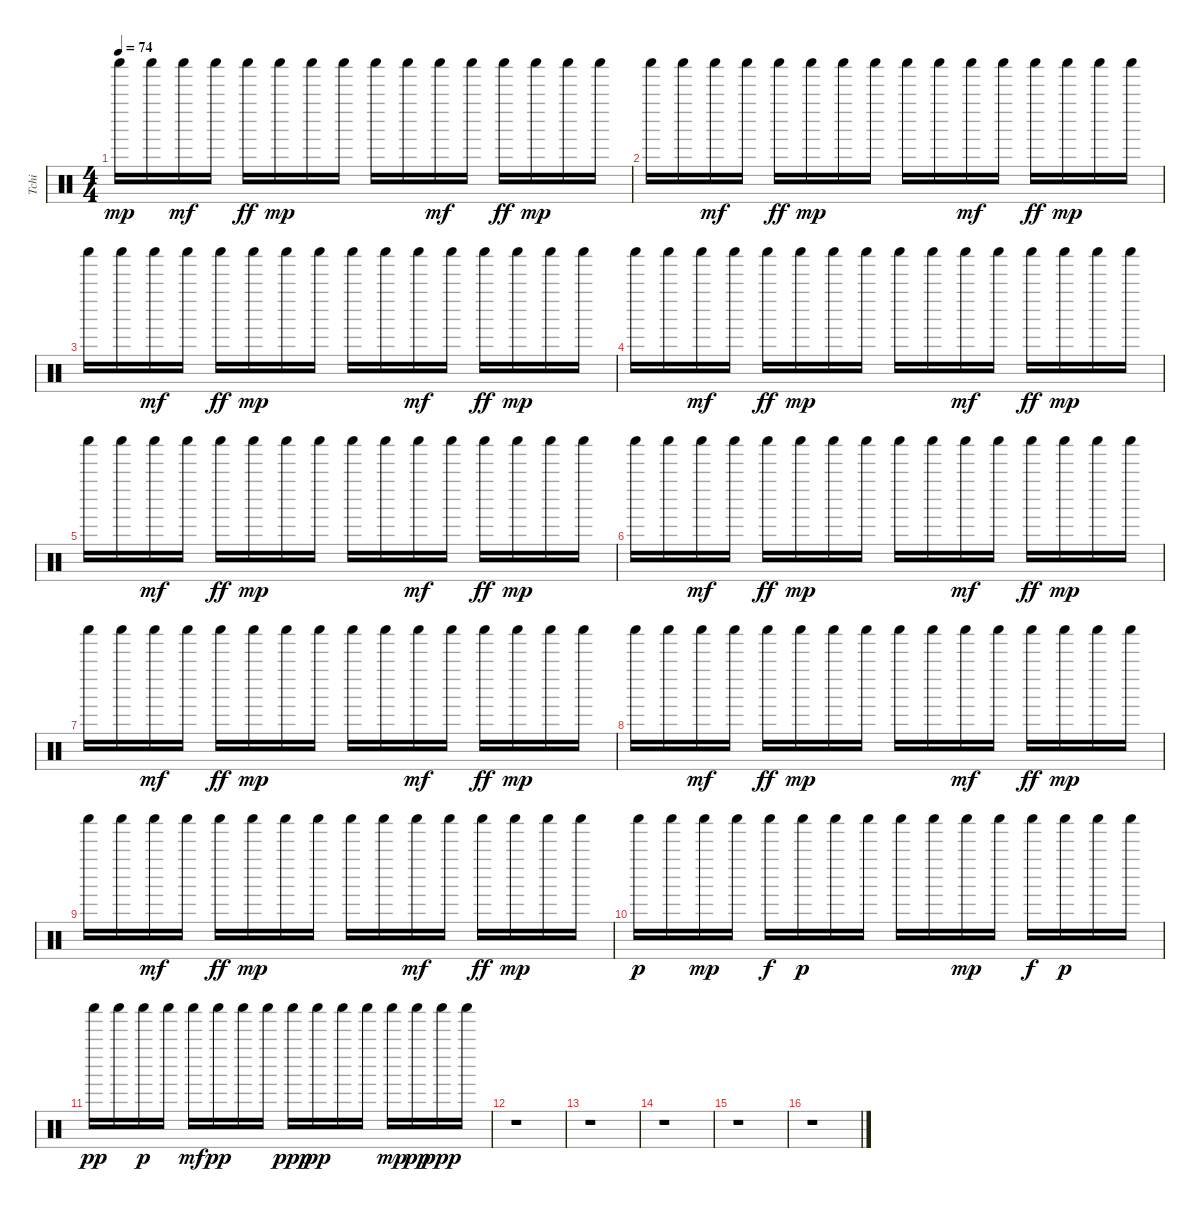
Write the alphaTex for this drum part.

\track ("Tchi" "Tchi") {instrument percussion}
\staff {score}
\articulation defaults
\ts (4 4)
\tempo 74
\clef neutral
\ks c "Shaker (hit)".16{dy mp} "Shaker (hit)".16 "Shaker (hit)".16{dy mf} "Shaker (hit)".16 "Shaker (hit)".16{dy ff} "Shaker (hit)".16{dy mp} "Shaker (hit)".16 "Shaker (hit)".16 "Shaker (hit)".16 "Shaker (hit)".16 "Shaker (hit)".16{dy mf} "Shaker (hit)".16 "Shaker (hit)".16{dy ff} "Shaker (hit)".16{dy mp} "Shaker (hit)".16 "Shaker (hit)".16
|
"Shaker (hit)".16 "Shaker (hit)".16 "Shaker (hit)".16{dy mf} "Shaker (hit)".16 "Shaker (hit)".16{dy ff} "Shaker (hit)".16{dy mp} "Shaker (hit)".16 "Shaker (hit)".16 "Shaker (hit)".16 "Shaker (hit)".16 "Shaker (hit)".16{dy mf} "Shaker (hit)".16 "Shaker (hit)".16{dy ff} "Shaker (hit)".16{dy mp} "Shaker (hit)".16 "Shaker (hit)".16 |
"Shaker (hit)".16 "Shaker (hit)".16 "Shaker (hit)".16{dy mf} "Shaker (hit)".16 "Shaker (hit)".16{dy ff} "Shaker (hit)".16{dy mp} "Shaker (hit)".16 "Shaker (hit)".16 "Shaker (hit)".16 "Shaker (hit)".16 "Shaker (hit)".16{dy mf} "Shaker (hit)".16 "Shaker (hit)".16{dy ff} "Shaker (hit)".16{dy mp} "Shaker (hit)".16 "Shaker (hit)".16 |
"Shaker (hit)".16 "Shaker (hit)".16 "Shaker (hit)".16{dy mf} "Shaker (hit)".16 "Shaker (hit)".16{dy ff} "Shaker (hit)".16{dy mp} "Shaker (hit)".16 "Shaker (hit)".16 "Shaker (hit)".16 "Shaker (hit)".16 "Shaker (hit)".16{dy mf} "Shaker (hit)".16 "Shaker (hit)".16{dy ff} "Shaker (hit)".16{dy mp} "Shaker (hit)".16 "Shaker (hit)".16 |
"Shaker (hit)".16 "Shaker (hit)".16 "Shaker (hit)".16{dy mf} "Shaker (hit)".16 "Shaker (hit)".16{dy ff} "Shaker (hit)".16{dy mp} "Shaker (hit)".16 "Shaker (hit)".16 "Shaker (hit)".16 "Shaker (hit)".16 "Shaker (hit)".16{dy mf} "Shaker (hit)".16 "Shaker (hit)".16{dy ff} "Shaker (hit)".16{dy mp} "Shaker (hit)".16 "Shaker (hit)".16 |
"Shaker (hit)".16 "Shaker (hit)".16 "Shaker (hit)".16{dy mf} "Shaker (hit)".16 "Shaker (hit)".16{dy ff} "Shaker (hit)".16{dy mp} "Shaker (hit)".16 "Shaker (hit)".16 "Shaker (hit)".16 "Shaker (hit)".16 "Shaker (hit)".16{dy mf} "Shaker (hit)".16 "Shaker (hit)".16{dy ff} "Shaker (hit)".16{dy mp} "Shaker (hit)".16 "Shaker (hit)".16 |
"Shaker (hit)".16 "Shaker (hit)".16 "Shaker (hit)".16{dy mf} "Shaker (hit)".16 "Shaker (hit)".16{dy ff} "Shaker (hit)".16{dy mp} "Shaker (hit)".16 "Shaker (hit)".16 "Shaker (hit)".16 "Shaker (hit)".16 "Shaker (hit)".16{dy mf} "Shaker (hit)".16 "Shaker (hit)".16{dy ff} "Shaker (hit)".16{dy mp} "Shaker (hit)".16 "Shaker (hit)".16 |
"Shaker (hit)".16 "Shaker (hit)".16 "Shaker (hit)".16{dy mf} "Shaker (hit)".16 "Shaker (hit)".16{dy ff} "Shaker (hit)".16{dy mp} "Shaker (hit)".16 "Shaker (hit)".16 "Shaker (hit)".16 "Shaker (hit)".16 "Shaker (hit)".16{dy mf} "Shaker (hit)".16 "Shaker (hit)".16{dy ff} "Shaker (hit)".16{dy mp} "Shaker (hit)".16 "Shaker (hit)".16 |
"Shaker (hit)".16 "Shaker (hit)".16 "Shaker (hit)".16{dy mf} "Shaker (hit)".16 "Shaker (hit)".16{dy ff} "Shaker (hit)".16{dy mp} "Shaker (hit)".16 "Shaker (hit)".16 "Shaker (hit)".16 "Shaker (hit)".16 "Shaker (hit)".16{dy mf} "Shaker (hit)".16 "Shaker (hit)".16{dy ff} "Shaker (hit)".16{dy mp} "Shaker (hit)".16 "Shaker (hit)".16 |
"Shaker (hit)".16{dy p} "Shaker (hit)".16 "Shaker (hit)".16{dy mp} "Shaker (hit)".16 "Shaker (hit)".16{dy f} "Shaker (hit)".16{dy p} "Shaker (hit)".16 "Shaker (hit)".16 "Shaker (hit)".16 "Shaker (hit)".16 "Shaker (hit)".16{dy mp} "Shaker (hit)".16 "Shaker (hit)".16{dy f} "Shaker (hit)".16{dy p} "Shaker (hit)".16 "Shaker (hit)".16 |
"Shaker (hit)".16{dy pp} "Shaker (hit)".16 "Shaker (hit)".16{dy p} "Shaker (hit)".16 "Shaker (hit)".16{dy mf} "Shaker (hit)".16{dy pp} "Shaker (hit)".16 "Shaker (hit)".16 "Shaker (hit)".16{dy ppp} "Shaker (hit)".16{dy pp} "Shaker (hit)".16 "Shaker (hit)".16 "Shaker (hit)".16{dy mp} "Shaker (hit)".16{dy pp} "Shaker (hit)".16{dy ppp} "Shaker (hit)".16 |
r.1 |
r.1 |
r.1 |
r.1 |
r.1
